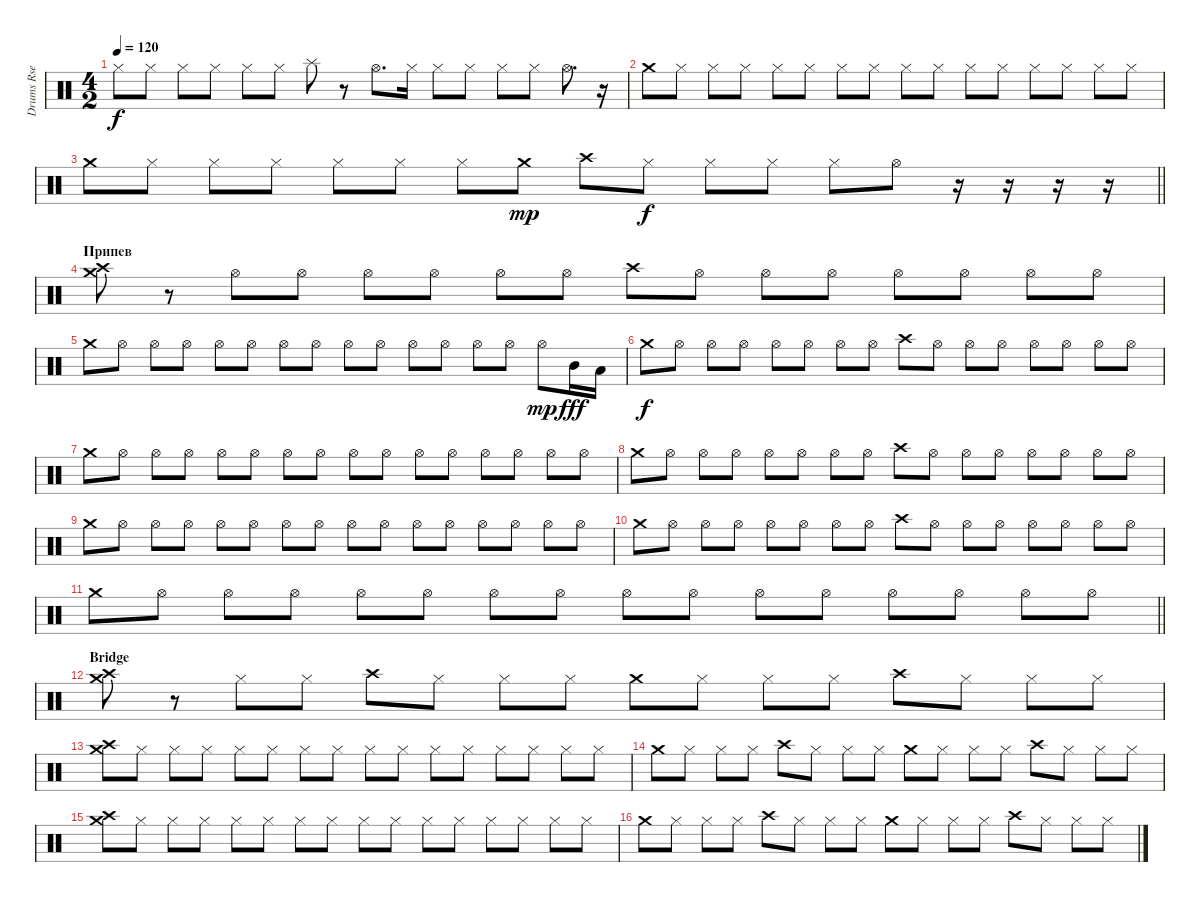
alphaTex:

\track ("Drums Rse" "Drums Rse") {instrument percussion}
\staff {score}
\articulation defaults
\ts (4 2)
\tempo 120
\clef neutral
\ks c "Hi-Hat (closed)".8{dy f} "Hi-Hat (closed)".8 "Hi-Hat (closed)".8 "Hi-Hat (closed)".8 "Hi-Hat (closed)".8 "Hi-Hat (closed)".8 "Splash (hit)".8
r.8 "Hi-Hat (open)".8{d} "Hi-Hat (closed)".16 "Hi-Hat (closed)".8 "Hi-Hat (closed)".8 "Hi-Hat (closed)".8 "Hi-Hat (closed)".8 "Hi-Hat (open)".8{d} r.16 |
"Crash medium (hit)".8 "Hi-Hat (closed)".8 "Hi-Hat (closed)".8 "Hi-Hat (closed)".8 "Hi-Hat (closed)".8 "Hi-Hat (closed)".8 "Hi-Hat (closed)".8 "Hi-Hat (closed)".8 "Hi-Hat (closed)".8 "Hi-Hat (closed)".8 "Hi-Hat (closed)".8 "Hi-Hat (closed)".8 "Hi-Hat (closed)".8 "Hi-Hat (closed)".8 "Hi-Hat (closed)".8 "Hi-Hat (closed)".8 |
\barLineRight lightlight "Crash medium (hit)".8 "Hi-Hat (closed)".8 "Hi-Hat (closed)".8 "Hi-Hat (closed)".8 "Hi-Hat (closed)".8 "Hi-Hat (closed)".8 "Hi-Hat (closed)".8 "Crash medium (hit)".8{dy mp} "Crash high (hit)".8 "Hi-Hat (closed)".8{dy f} "Hi-Hat (closed)".8 "Hi-Hat (closed)".8 "Hi-Hat (closed)".8 "Hi-Hat (open)".8
r.16 r.16 r.16 r.16 |
\section ("" "Припев")
("Crash medium (hit)" "Crash high (hit)").8 r.8 "Hi-Hat (open)".8 "Hi-Hat (open)".8 "Hi-Hat (open)".8 "Hi-Hat (open)".8 "Hi-Hat (open)".8 "Hi-Hat (open)".8 "Crash high (hit)".8 "Hi-Hat (open)".8 "Hi-Hat (open)".8 "Hi-Hat (open)".8 "Hi-Hat (open)".8 "Hi-Hat (open)".8 "Hi-Hat (open)".8 "Hi-Hat (open)".8 |
"Crash medium (hit)".8 "Hi-Hat (open)".8 "Hi-Hat (open)".8 "Hi-Hat (open)".8 "Hi-Hat (open)".8 "Hi-Hat (open)".8 "Hi-Hat (open)".8 "Hi-Hat (open)".8 "Hi-Hat (open)".8 "Hi-Hat (open)".8 "Hi-Hat (open)".8 "Hi-Hat (open)".8 "Hi-Hat (open)".8 "Hi-Hat (open)".8 "Hi-Hat (open)".8{dy mp} "Mid Tom (hit)".16{dy fff} "Low Tom (hit)".16 |
"Crash medium (hit)".8{dy f} "Hi-Hat (open)".8 "Hi-Hat (open)".8 "Hi-Hat (open)".8 "Hi-Hat (open)".8 "Hi-Hat (open)".8 "Hi-Hat (open)".8 "Hi-Hat (open)".8 "Crash high (hit)".8 "Hi-Hat (open)".8 "Hi-Hat (open)".8 "Hi-Hat (open)".8 "Hi-Hat (open)".8 "Hi-Hat (open)".8 "Hi-Hat (open)".8 "Hi-Hat (open)".8 |
"Crash medium (hit)".8 "Hi-Hat (open)".8 "Hi-Hat (open)".8 "Hi-Hat (open)".8 "Hi-Hat (open)".8 "Hi-Hat (open)".8 "Hi-Hat (open)".8 "Hi-Hat (open)".8 "Hi-Hat (open)".8 "Hi-Hat (open)".8 "Hi-Hat (open)".8 "Hi-Hat (open)".8 "Hi-Hat (open)".8 "Hi-Hat (open)".8 "Hi-Hat (open)".8 "Hi-Hat (open)".8 |
"Crash medium (hit)".8 "Hi-Hat (open)".8 "Hi-Hat (open)".8 "Hi-Hat (open)".8 "Hi-Hat (open)".8 "Hi-Hat (open)".8 "Hi-Hat (open)".8 "Hi-Hat (open)".8 "Crash high (hit)".8 "Hi-Hat (open)".8 "Hi-Hat (open)".8 "Hi-Hat (open)".8 "Hi-Hat (open)".8 "Hi-Hat (open)".8 "Hi-Hat (open)".8 "Hi-Hat (open)".8 |
"Crash medium (hit)".8 "Hi-Hat (open)".8 "Hi-Hat (open)".8 "Hi-Hat (open)".8 "Hi-Hat (open)".8 "Hi-Hat (open)".8 "Hi-Hat (open)".8 "Hi-Hat (open)".8 "Hi-Hat (open)".8 "Hi-Hat (open)".8 "Hi-Hat (open)".8 "Hi-Hat (open)".8 "Hi-Hat (open)".8 "Hi-Hat (open)".8 "Hi-Hat (open)".8 "Hi-Hat (open)".8 |
"Crash medium (hit)".8 "Hi-Hat (open)".8 "Hi-Hat (open)".8 "Hi-Hat (open)".8 "Hi-Hat (open)".8 "Hi-Hat (open)".8 "Hi-Hat (open)".8 "Hi-Hat (open)".8 "Crash high (hit)".8 "Hi-Hat (open)".8 "Hi-Hat (open)".8 "Hi-Hat (open)".8 "Hi-Hat (open)".8 "Hi-Hat (open)".8 "Hi-Hat (open)".8 "Hi-Hat (open)".8 |
\barLineRight lightlight "Crash medium (hit)".8 "Hi-Hat (open)".8 "Hi-Hat (open)".8 "Hi-Hat (open)".8 "Hi-Hat (open)".8 "Hi-Hat (open)".8 "Hi-Hat (open)".8 "Hi-Hat (open)".8 "Hi-Hat (open)".8 "Hi-Hat (open)".8 "Hi-Hat (open)".8 "Hi-Hat (open)".8 "Hi-Hat (open)".8 "Hi-Hat (open)".8 "Hi-Hat (open)".8 "Hi-Hat (open)".8
|
\section ("" "Bridge")
("Crash medium (hit)" "Crash high (hit)").8 r.8 "Hi-Hat (closed)".8 "Hi-Hat (closed)".8 "Crash high (hit)".8 "Hi-Hat (closed)".8 "Hi-Hat (closed)".8 "Hi-Hat (closed)".8 "Crash medium (hit)".8 "Hi-Hat (closed)".8 "Hi-Hat (closed)".8 "Hi-Hat (closed)".8 "Crash high (hit)".8 "Hi-Hat (closed)".8 "Hi-Hat (closed)".8 "Hi-Hat (closed)".8 |
("Crash medium (hit)" "Crash high (hit)").8 "Hi-Hat (closed)".8 "Hi-Hat (closed)".8 "Hi-Hat (closed)".8 "Hi-Hat (closed)".8 "Hi-Hat (closed)".8 "Hi-Hat (closed)".8 "Hi-Hat (closed)".8 "Hi-Hat (closed)".8 "Hi-Hat (closed)".8 "Hi-Hat (closed)".8 "Hi-Hat (closed)".8 "Hi-Hat (closed)".8 "Hi-Hat (closed)".8 "Hi-Hat (closed)".8 "Hi-Hat (closed)".8 |
"Crash medium (hit)".8 "Hi-Hat (closed)".8 "Hi-Hat (closed)".8 "Hi-Hat (closed)".8 "Crash high (hit)".8 "Hi-Hat (closed)".8 "Hi-Hat (closed)".8 "Hi-Hat (closed)".8 "Crash medium (hit)".8 "Hi-Hat (closed)".8 "Hi-Hat (closed)".8 "Hi-Hat (closed)".8 "Crash high (hit)".8 "Hi-Hat (closed)".8 "Hi-Hat (closed)".8 "Hi-Hat (closed)".8 |
("Crash medium (hit)" "Crash high (hit)").8 "Hi-Hat (closed)".8 "Hi-Hat (closed)".8 "Hi-Hat (closed)".8 "Hi-Hat (closed)".8 "Hi-Hat (closed)".8 "Hi-Hat (closed)".8 "Hi-Hat (closed)".8 "Hi-Hat (closed)".8 "Hi-Hat (closed)".8 "Hi-Hat (closed)".8 "Hi-Hat (closed)".8 "Hi-Hat (closed)".8 "Hi-Hat (closed)".8 "Hi-Hat (closed)".8 "Hi-Hat (closed)".8 |
"Crash medium (hit)".8 "Hi-Hat (closed)".8 "Hi-Hat (closed)".8 "Hi-Hat (closed)".8 "Crash high (hit)".8 "Hi-Hat (closed)".8 "Hi-Hat (closed)".8 "Hi-Hat (closed)".8 "Crash medium (hit)".8 "Hi-Hat (closed)".8 "Hi-Hat (closed)".8 "Hi-Hat (closed)".8 "Crash high (hit)".8 "Hi-Hat (closed)".8 "Hi-Hat (closed)".8 "Hi-Hat (closed)".8
